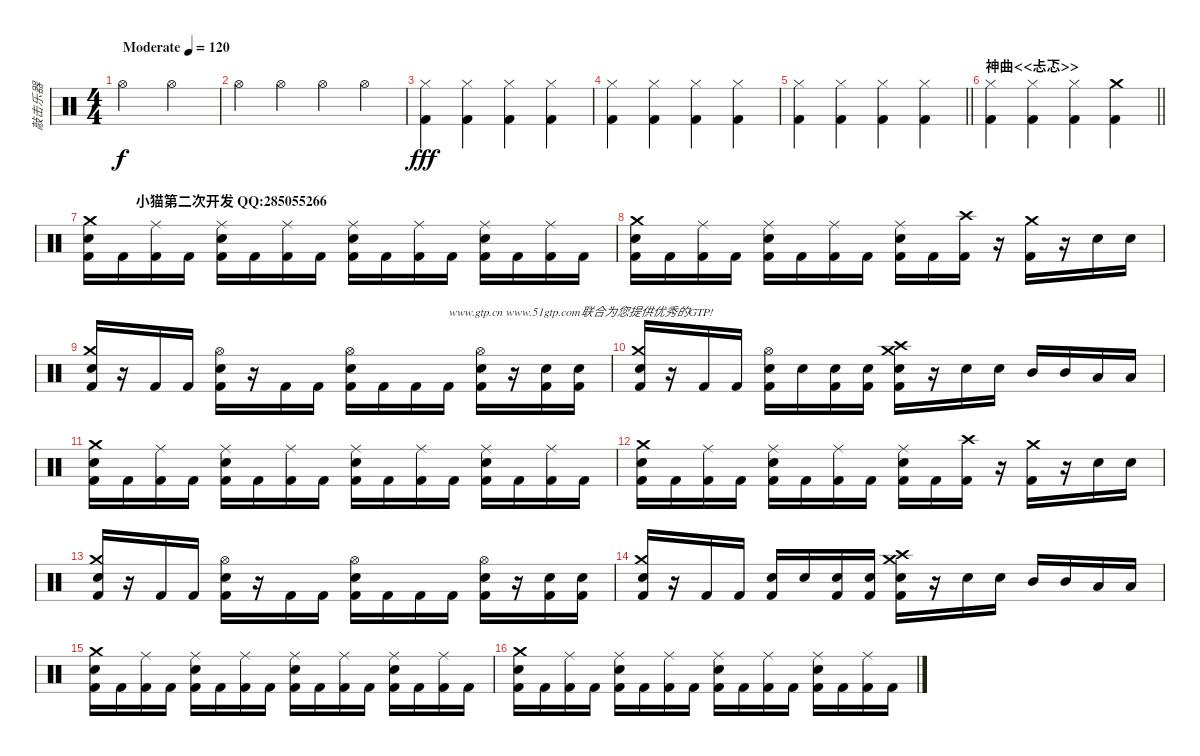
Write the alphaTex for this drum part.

\track ("敲击乐器" "敲击乐器") {instrument percussion}
\staff {score}
\articulation defaults
\ts (4 4)
\tempo (120 "Moderate")
\clef neutral
\ks c "Hi-Hat (open)".2{dy f} "Hi-Hat (open)".2
|
"Hi-Hat (open)".4 "Hi-Hat (open)".4 "Hi-Hat (open)".4 "Hi-Hat (open)".4 |
("Hi-Hat (closed)" "Kick (hit) 2").4{dy fff} ("Hi-Hat (closed)" "Kick (hit) 2").4 ("Hi-Hat (closed)" "Kick (hit) 2").4 ("Hi-Hat (closed)" "Kick (hit) 2").4 |
("Hi-Hat (closed)" "Kick (hit) 2").4 ("Hi-Hat (closed)" "Kick (hit) 2").4 ("Hi-Hat (closed)" "Kick (hit) 2").4 ("Hi-Hat (closed)" "Kick (hit) 2").4 |
\barLineRight lightlight
("Hi-Hat (closed)" "Kick (hit) 2").4 ("Hi-Hat (closed)" "Kick (hit) 2").4 ("Hi-Hat (closed)" "Kick (hit) 2").4 ("Hi-Hat (closed)" "Kick (hit) 2").4 |
\section ("" "神曲<<忐忑>>")
\barLineRight lightlight
("Hi-Hat (closed)" "Kick (hit) 2").4 ("Hi-Hat (closed)" "Kick (hit) 2").4 ("Hi-Hat (closed)" "Kick (hit) 2").4 ("Crash medium (hit)" "Kick (hit) 2").4 |
\section ("" "               小猫第二次开发 QQ:285055266")
("Crash medium (hit)" "Snare (hit) 2" "Kick (hit) 2").16 "Kick (hit) 2".16 ("Ride (middle)" "Kick (hit) 2").16 "Kick (hit) 2".16 ("Ride (middle)" "Snare (hit) 2" "Kick (hit) 2").16 "Kick (hit) 2".16 ("Ride (middle)" "Kick (hit) 2").16 "Kick (hit) 2".16 ("Ride (middle)" "Snare (hit) 2" "Kick (hit) 2").16 "Kick (hit) 2".16 ("Ride (middle)" "Kick (hit) 2").16 "Kick (hit) 2".16 ("Ride (middle)" "Snare (hit) 2" "Kick (hit) 2").16 "Kick (hit) 2".16 ("Ride (middle)" "Kick (hit) 2").16 "Kick (hit) 2".16 |
("Crash medium (hit)" "Snare (hit) 2" "Kick (hit) 2").16 "Kick (hit) 2".16 ("Ride (middle)" "Kick (hit) 2").16 "Kick (hit) 2".16 ("Ride (middle)" "Snare (hit) 2" "Kick (hit) 2").16 "Kick (hit) 2".16 ("Ride (middle)" "Kick (hit) 2").16 "Kick (hit) 2".16 ("Ride (middle)" "Snare (hit) 2" "Kick (hit) 2").16 "Kick (hit) 2".16 ("Crash high (hit)" "Kick (hit) 2").16 r.16 ("Crash medium (hit)" "Kick (hit) 2").16 r.16 "Snare (hit) 2".16 "Snare (hit) 2".16 |
("Crash medium (hit)" "Snare (hit) 2" "Kick (hit) 2").16 r.16 "Kick (hit) 2".16 "Kick (hit) 2".16 ("Hi-Hat (open)" "Snare (hit) 2" "Kick (hit) 2").16 r.16 "Kick (hit) 2".16 "Kick (hit) 2".16 ("Hi-Hat (open)" "Snare (hit) 2" "Kick (hit) 2").16 "Kick (hit) 2".16 "Kick (hit) 2".16 "Kick (hit) 2".16{txt "www.gtp.cn www.51gtp.com联合为您提供优秀的GTP!"} ("Hi-Hat (open)" "Snare (hit) 2" "Kick (hit) 2").16 r.16 ("Snare (hit) 2" "Kick (hit) 2").16 ("Snare (hit) 2" "Kick (hit) 2").16 |
("Crash medium (hit)" "Snare (hit) 2" "Kick (hit) 2").16 r.16 "Kick (hit) 2".16 "Kick (hit) 2".16 ("Hi-Hat (open)" "Snare (hit) 2" "Kick (hit) 2").16 "Snare (hit) 2".16 ("Snare (hit) 2" "Kick (hit) 2").16 ("Snare (hit) 2" "Kick (hit) 2").16 ("Crash medium (hit)" "Crash high (hit)" "Snare (hit) 2" "Kick (hit) 2").16 r.16 "Snare (hit) 2".16 "Snare (hit) 2".16 "Mid Tom (hit)".16 "Mid Tom (hit)".16 "Low Tom (hit)".16 "Low Tom (hit)".16 |
("Crash medium (hit)" "Snare (hit) 2" "Kick (hit) 2").16 "Kick (hit) 2".16 ("Ride (middle)" "Kick (hit) 2").16 "Kick (hit) 2".16 ("Ride (middle)" "Snare (hit) 2" "Kick (hit) 2").16 "Kick (hit) 2".16 ("Ride (middle)" "Kick (hit) 2").16 "Kick (hit) 2".16 ("Ride (middle)" "Snare (hit) 2" "Kick (hit) 2").16 "Kick (hit) 2".16 ("Ride (middle)" "Kick (hit) 2").16 "Kick (hit) 2".16 ("Ride (middle)" "Snare (hit) 2" "Kick (hit) 2").16 "Kick (hit) 2".16 ("Ride (middle)" "Kick (hit) 2").16 "Kick (hit) 2".16 |
("Crash medium (hit)" "Snare (hit) 2" "Kick (hit) 2").16 "Kick (hit) 2".16 ("Ride (middle)" "Kick (hit) 2").16 "Kick (hit) 2".16 ("Ride (middle)" "Snare (hit) 2" "Kick (hit) 2").16 "Kick (hit) 2".16 ("Ride (middle)" "Kick (hit) 2").16 "Kick (hit) 2".16 ("Ride (middle)" "Snare (hit) 2" "Kick (hit) 2").16 "Kick (hit) 2".16 ("Crash high (hit)" "Kick (hit) 2").16 r.16 ("Crash medium (hit)" "Kick (hit) 2").16 r.16 "Snare (hit) 2".16 "Snare (hit) 2".16 |
("Crash medium (hit)" "Snare (hit) 2" "Kick (hit) 2").16 r.16 "Kick (hit) 2".16 "Kick (hit) 2".16 ("Hi-Hat (open)" "Snare (hit) 2" "Kick (hit) 2").16 r.16 "Kick (hit) 2".16 "Kick (hit) 2".16 ("Hi-Hat (open)" "Snare (hit) 2" "Kick (hit) 2").16 "Kick (hit) 2".16 "Kick (hit) 2".16 "Kick (hit) 2".16 ("Hi-Hat (open)" "Snare (hit) 2" "Kick (hit) 2").16 r.16 ("Snare (hit) 2" "Kick (hit) 2").16 ("Snare (hit) 2" "Kick (hit) 2").16 |
("Crash medium (hit)" "Snare (hit) 2" "Kick (hit) 2").16 r.16 "Kick (hit) 2".16 "Kick (hit) 2".16 ("Snare (hit) 2" "Kick (hit) 2").16 "Snare (hit) 2".16 ("Snare (hit) 2" "Kick (hit) 2").16 ("Snare (hit) 2" "Kick (hit) 2").16 ("Crash medium (hit)" "Crash high (hit)" "Snare (hit) 2" "Kick (hit) 2").16 r.16 "Snare (hit) 2".16 "Snare (hit) 2".16 "Mid Tom (hit)".16 "Mid Tom (hit)".16 "Low Tom (hit)".16 "Low Tom (hit)".16 |
("Crash medium (hit)" "Snare (hit) 2" "Kick (hit) 2").16 "Kick (hit) 2".16 ("Ride (middle)" "Kick (hit) 2").16 "Kick (hit) 2".16 ("Ride (middle)" "Snare (hit) 2" "Kick (hit) 2").16 "Kick (hit) 2".16 ("Ride (middle)" "Kick (hit) 2").16 "Kick (hit) 2".16 ("Ride (middle)" "Snare (hit) 2" "Kick (hit) 2").16 "Kick (hit) 2".16 ("Ride (middle)" "Kick (hit) 2").16 "Kick (hit) 2".16 ("Ride (middle)" "Snare (hit) 2" "Kick (hit) 2").16 "Kick (hit) 2".16 ("Ride (middle)" "Kick (hit) 2").16 "Kick (hit) 2".16 |
("Crash medium (hit)" "Snare (hit) 2" "Kick (hit) 2").16 "Kick (hit) 2".16 ("Ride (middle)" "Kick (hit) 2").16 "Kick (hit) 2".16 ("Ride (middle)" "Snare (hit) 2" "Kick (hit) 2").16 "Kick (hit) 2".16 ("Ride (middle)" "Kick (hit) 2").16 "Kick (hit) 2".16 ("Ride (middle)" "Snare (hit) 2" "Kick (hit) 2").16 "Kick (hit) 2".16 ("Ride (middle)" "Kick (hit) 2").16 "Kick (hit) 2".16 ("Ride (middle)" "Snare (hit) 2" "Kick (hit) 2").16 "Kick (hit) 2".16 ("Ride (middle)" "Kick (hit) 2").16 "Kick (hit) 2".16
